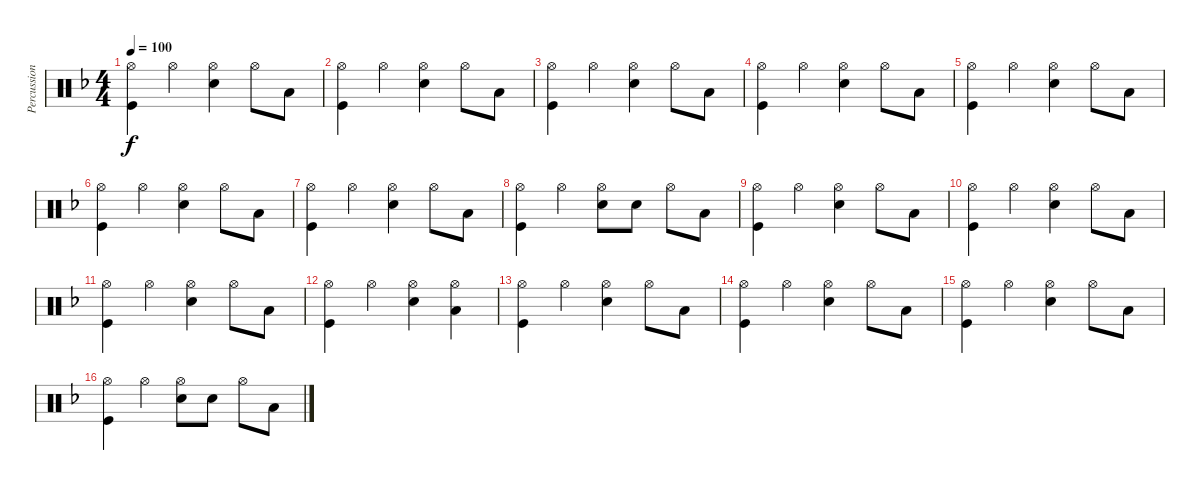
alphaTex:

\track ("Percussion" "Percussion") {instrument percussion}
\staff {score}
\articulation defaults
\ts (4 4)
\tempo 100
\clef neutral
\ks dminor
("Hi-Hat (open)" "Kick (hit)").4{dy f} "Hi-Hat (open)".4 ("Hi-Hat (open)" "Snare (hit) 2").4 "Hi-Hat (open)".8 "Low Tom (hit)".8 |
("Hi-Hat (open)" "Kick (hit)").4 "Hi-Hat (open)".4 ("Hi-Hat (open)" "Snare (hit) 2").4 "Hi-Hat (open)".8 "Low Tom (hit)".8 |
("Hi-Hat (open)" "Kick (hit)").4 "Hi-Hat (open)".4 ("Hi-Hat (open)" "Snare (hit) 2").4 "Hi-Hat (open)".8 "Low Tom (hit)".8 |
("Hi-Hat (open)" "Kick (hit)").4 "Hi-Hat (open)".4 ("Hi-Hat (open)" "Snare (hit) 2").4 "Hi-Hat (open)".8 "Low Tom (hit)".8 |
("Hi-Hat (open)" "Kick (hit)").4 "Hi-Hat (open)".4 ("Hi-Hat (open)" "Snare (hit) 2").4 "Hi-Hat (open)".8 "Low Tom (hit)".8 |
("Hi-Hat (open)" "Kick (hit)").4 "Hi-Hat (open)".4 ("Hi-Hat (open)" "Snare (hit) 2").4 "Hi-Hat (open)".8 "Low Tom (hit)".8 |
("Hi-Hat (open)" "Kick (hit)").4 "Hi-Hat (open)".4 ("Hi-Hat (open)" "Snare (hit) 2").4 "Hi-Hat (open)".8 "Low Tom (hit)".8 |
("Hi-Hat (open)" "Kick (hit)").4 "Hi-Hat (open)".4 ("Hi-Hat (open)" "Snare (hit) 2").8 "Snare (hit) 2".8 "Hi-Hat (open)".8 "Low Tom (hit)".8 |
("Hi-Hat (open)" "Kick (hit)").4 "Hi-Hat (open)".4 ("Hi-Hat (open)" "Snare (hit) 2").4 "Hi-Hat (open)".8 "Low Tom (hit)".8 |
("Hi-Hat (open)" "Kick (hit)").4 "Hi-Hat (open)".4 ("Hi-Hat (open)" "Snare (hit) 2").4 "Hi-Hat (open)".8 "Low Tom (hit)".8 |
("Hi-Hat (open)" "Kick (hit)").4 "Hi-Hat (open)".4 ("Hi-Hat (open)" "Snare (hit) 2").4 "Hi-Hat (open)".8 "Low Tom (hit)".8 |
("Hi-Hat (open)" "Kick (hit)").4 "Hi-Hat (open)".4 ("Hi-Hat (open)" "Snare (hit) 2").4 ("Hi-Hat (open)" "Low Tom (hit)").4 |
("Hi-Hat (open)" "Kick (hit)").4 "Hi-Hat (open)".4 ("Hi-Hat (open)" "Snare (hit) 2").4 "Hi-Hat (open)".8 "Low Tom (hit)".8 |
("Hi-Hat (open)" "Kick (hit)").4 "Hi-Hat (open)".4 ("Hi-Hat (open)" "Snare (hit) 2").4 "Hi-Hat (open)".8 "Low Tom (hit)".8 |
("Hi-Hat (open)" "Kick (hit)").4 "Hi-Hat (open)".4 ("Hi-Hat (open)" "Snare (hit) 2").4 "Hi-Hat (open)".8 "Low Tom (hit)".8 |
("Hi-Hat (open)" "Kick (hit)").4 "Hi-Hat (open)".4 ("Hi-Hat (open)" "Snare (hit) 2").8 "Snare (hit) 2".8 "Hi-Hat (open)".8 "Low Tom (hit)".8
